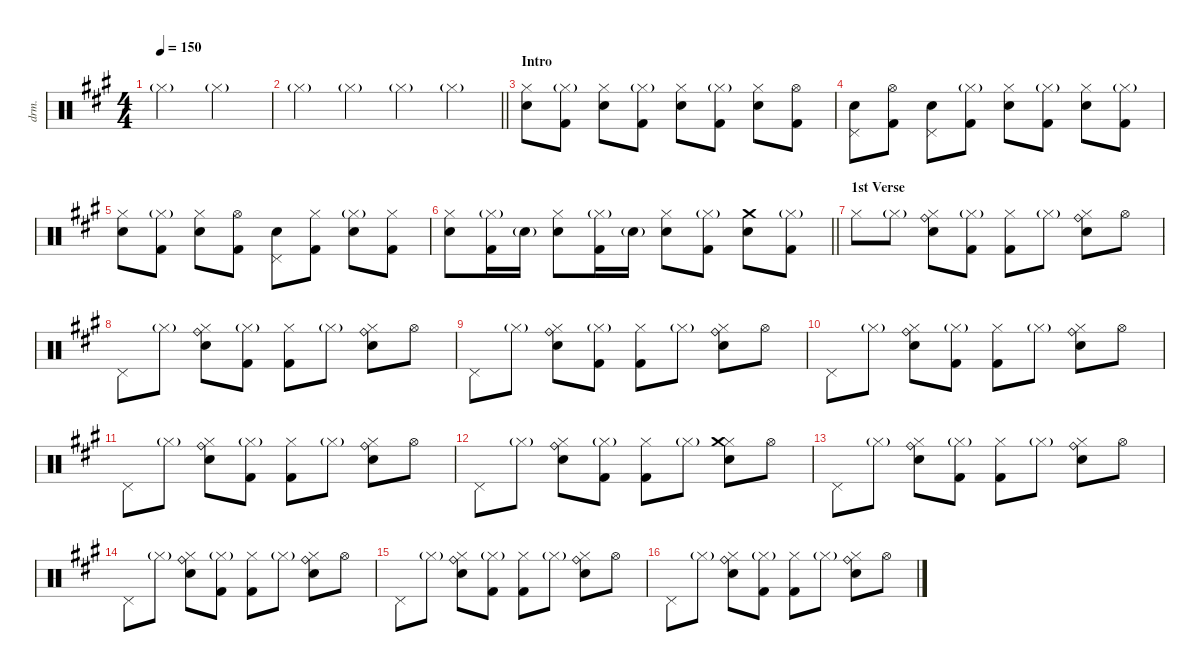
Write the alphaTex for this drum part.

\defaultSystemsLayout 4
\hideDynamics
\bracketExtendMode nobrackets
\otherSystemsTrackNameOrientation horizontal
\track ("Drums" "drm.") {instrument percussion}
\staff {score}
\articulation defaults
\ts (4 4)
\beaming (8 2 2 2 2)
\tempo 150
\clef neutral
\ks a "Hi-Hat (closed)"{g acc forcenatural}.2{dy p} "Hi-Hat (closed)"{g acc forcenatural}.2
|
\barLineRight lightlight "Hi-Hat (closed)"{g acc forcenatural}.4 "Hi-Hat (closed)"{g acc forcenatural}.4 "Hi-Hat (closed)"{g acc forcenatural}.4 "Hi-Hat (closed)"{g acc forcenatural}.4
|
\section ("" "Intro")
("Snare (hit) 2"{acc forcenatural} "Hi-Hat (closed)"{acc forcenatural}).8{dy ppp} ("Kick (hit) 2"{acc forcenatural} "Hi-Hat (closed)"{g acc forcenatural}).8{dy fff} ("Snare (hit) 2"{acc forcenatural} "Hi-Hat (closed)"{acc forcenatural}).8{dy ff} ("Kick (hit) 2"{acc forcenatural} "Hi-Hat (closed)"{g acc forcenatural}).8{dy fff} ("Snare (hit) 2"{acc forcenatural} "Hi-Hat (closed)"{acc forcenatural}).8{dy ff} ("Kick (hit) 2"{acc forcenatural} "Hi-Hat (closed)"{g acc forcenatural}).8{dy fff} ("Snare (hit) 2"{acc forcenatural} "Hi-Hat (closed)"{acc forcenatural}).8{dy ff} ("Kick (hit) 2"{acc forcenatural} "Hi-Hat (open)"{acc forcenatural}).8{dy fff} |
("Snare (hit) 2"{acc forcenatural} "Pedal Hi-Hat (hit)"{acc forcenatural}).8{dy ff} ("Kick (hit) 2"{acc forcenatural} "Hi-Hat (open)"{acc forcenatural}).8{dy fff} ("Snare (hit) 2"{acc forcenatural} "Pedal Hi-Hat (hit)"{acc forcenatural}).8{dy ff} ("Kick (hit) 2"{acc forcenatural} "Hi-Hat (closed)"{g acc forcenatural}).8{dy fff} ("Snare (hit) 2"{acc forcenatural} "Hi-Hat (closed)"{acc forcenatural}).8{dy ff} ("Kick (hit) 2"{acc forcenatural} "Hi-Hat (closed)"{g acc forcenatural}).8{dy fff} ("Snare (hit) 2"{acc forcenatural} "Hi-Hat (closed)"{acc forcenatural}).8{dy ff} ("Kick (hit) 2"{acc forcenatural} "Hi-Hat (closed)"{g acc forcenatural}).8{dy fff} |
("Snare (hit) 2"{acc forcenatural} "Hi-Hat (closed)"{acc forcenatural}).8{dy ff} ("Kick (hit) 2"{acc forcenatural} "Hi-Hat (closed)"{g acc forcenatural}).8{dy fff} ("Snare (hit) 2"{acc forcenatural} "Hi-Hat (closed)"{acc forcenatural}).8{dy ff} ("Kick (hit) 2"{acc forcenatural} "Hi-Hat (open)"{acc forcenatural}).8{dy fff} ("Snare (hit) 2"{acc forcenatural} "Pedal Hi-Hat (hit)"{acc forcenatural}).8{dy ff} ("Kick (hit) 2"{acc forcenatural} "Hi-Hat (closed)"{acc forcenatural}).8{dy fff} ("Snare (hit) 2"{acc forcenatural} "Hi-Hat (closed)"{g acc forcenatural}).8{dy ff} ("Kick (hit) 2"{acc forcenatural} "Hi-Hat (closed)"{acc forcenatural}).8{dy fff} |
\barLineRight lightlight
("Snare (hit) 2"{acc forcenatural} "Hi-Hat (closed)"{acc forcenatural}).8{dy ff} ("Kick (hit) 2"{acc forcenatural} "Hi-Hat (closed)"{g acc forcenatural}).16{dy fff} "Snare (hit) 2"{g acc forcenatural}.16{dy f} ("Snare (hit) 2"{acc forcenatural} "Hi-Hat (closed)"{acc forcenatural}).8{dy ff} ("Kick (hit) 2"{acc forcenatural} "Hi-Hat (closed)"{g acc forcenatural}).16{dy fff} "Snare (hit) 2"{g acc forcenatural}.16{dy f} ("Snare (hit) 2"{acc forcenatural} "Hi-Hat (closed)"{acc forcenatural}).8{dy ff} ("Kick (hit) 2"{acc forcenatural} "Hi-Hat (closed)"{g acc forcenatural}).8{dy fff} ("Snare (hit) 2"{acc forcenatural} "Crash medium (hit)"{acc forcenatural}).8{dy ff} ("Kick (hit) 2"{acc forcenatural} "Hi-Hat (closed)"{g acc forcenatural}).8{dy fff} |
\section ("" "1st Verse")
"Hi-Hat (closed)"{acc forcenatural}.8{dy f} "Hi-Hat (closed)"{g acc forcenatural}.8{dy p} ("Snare (hit) 2"{acc forcenatural} "Hi-Hat (closed)"{acc forcenatural} "Ride (bell)"{acc forcenatural}).8{dy ff} ("Kick (hit) 2"{acc forcenatural} "Hi-Hat (closed)"{g acc forcenatural}).8{dy mp} ("Kick (hit) 2"{acc forcenatural} "Hi-Hat (closed)"{acc forcenatural}).8{dy fff} "Hi-Hat (closed)"{g acc forcenatural}.8{dy p} ("Snare (hit) 2"{acc forcenatural} "Hi-Hat (closed)"{acc forcenatural} "Ride (bell)"{acc forcenatural}).8{dy ff} "Hi-Hat (open)"{acc forcenatural}.8{dy mp} |
"Pedal Hi-Hat (hit)"{acc forcenatural}.8{dy f} "Hi-Hat (closed)"{g acc forcenatural}.8{dy p} ("Snare (hit) 2"{acc forcenatural} "Hi-Hat (closed)"{acc forcenatural} "Ride (bell)"{acc forcenatural}).8{dy ff} ("Kick (hit) 2"{acc forcenatural} "Hi-Hat (closed)"{g acc forcenatural}).8{dy mp} ("Kick (hit) 2"{acc forcenatural} "Hi-Hat (closed)"{acc forcenatural}).8{dy fff} "Hi-Hat (closed)"{g acc forcenatural}.8{dy p} ("Snare (hit) 2"{acc forcenatural} "Hi-Hat (closed)"{acc forcenatural} "Ride (bell)"{acc forcenatural}).8{dy ff} "Hi-Hat (open)"{acc forcenatural}.8{dy mp} |
"Pedal Hi-Hat (hit)"{acc forcenatural}.8{dy f} "Hi-Hat (closed)"{g acc forcenatural}.8{dy p} ("Snare (hit) 2"{acc forcenatural} "Hi-Hat (closed)"{acc forcenatural} "Ride (bell)"{acc forcenatural}).8{dy ff} ("Kick (hit) 2"{acc forcenatural} "Hi-Hat (closed)"{g acc forcenatural}).8{dy mp} ("Kick (hit) 2"{acc forcenatural} "Hi-Hat (closed)"{acc forcenatural}).8{dy fff} "Hi-Hat (closed)"{g acc forcenatural}.8{dy p} ("Snare (hit) 2"{acc forcenatural} "Hi-Hat (closed)"{acc forcenatural} "Ride (bell)"{acc forcenatural}).8{dy ff} "Hi-Hat (open)"{acc forcenatural}.8{dy mp} |
"Pedal Hi-Hat (hit)"{acc forcenatural}.8{dy f} "Hi-Hat (closed)"{g acc forcenatural}.8{dy p} ("Snare (hit) 2"{acc forcenatural} "Hi-Hat (closed)"{acc forcenatural} "Ride (bell)"{acc forcenatural}).8{dy ff} ("Kick (hit) 2"{acc forcenatural} "Hi-Hat (closed)"{g acc forcenatural}).8{dy mp} ("Kick (hit) 2"{acc forcenatural} "Hi-Hat (closed)"{acc forcenatural}).8{dy fff} "Hi-Hat (closed)"{g acc forcenatural}.8{dy p} ("Snare (hit) 2"{acc forcenatural} "Hi-Hat (closed)"{acc forcenatural} "Ride (bell)"{acc forcenatural}).8{dy ff} "Hi-Hat (open)"{acc forcenatural}.8{dy mp} |
"Pedal Hi-Hat (hit)"{acc forcenatural}.8{dy f} "Hi-Hat (closed)"{g acc forcenatural}.8{dy p} ("Snare (hit) 2"{acc forcenatural} "Hi-Hat (closed)"{acc forcenatural} "Ride (bell)"{acc forcenatural}).8{dy ff} ("Kick (hit) 2"{acc forcenatural} "Hi-Hat (closed)"{g acc forcenatural}).8{dy mp} ("Kick (hit) 2"{acc forcenatural} "Hi-Hat (closed)"{acc forcenatural}).8{dy fff} "Hi-Hat (closed)"{g acc forcenatural}.8{dy p} ("Snare (hit) 2"{acc forcenatural} "Hi-Hat (closed)"{acc forcenatural} "Ride (bell)"{acc forcenatural}).8{dy ff} "Hi-Hat (open)"{acc forcenatural}.8{dy mp} |
"Pedal Hi-Hat (hit)"{acc forcenatural}.8{dy f} "Hi-Hat (closed)"{g acc forcenatural}.8{dy p} ("Snare (hit) 2"{acc forcenatural} "Hi-Hat (closed)"{acc forcenatural} "Ride (bell)"{acc forcenatural}).8{dy ff} ("Kick (hit) 2"{acc forcenatural} "Hi-Hat (closed)"{g acc forcenatural}).8{dy mp} ("Kick (hit) 2"{acc forcenatural} "Hi-Hat (closed)"{acc forcenatural}).8{dy fff} "Hi-Hat (closed)"{g acc forcenatural}.8{dy p} ("Snare (hit) 2"{acc forcenatural} "Hi-Hat (closed)"{acc forcenatural} "Crash medium (hit)"{acc forcenatural}).8{dy ff} "Hi-Hat (open)"{acc forcenatural}.8{dy mp} |
"Pedal Hi-Hat (hit)"{acc forcenatural}.8{dy f} "Hi-Hat (closed)"{g acc forcenatural}.8{dy p} ("Snare (hit) 2"{acc forcenatural} "Hi-Hat (closed)"{acc forcenatural} "Ride (bell)"{acc forcenatural}).8{dy ff} ("Kick (hit) 2"{acc forcenatural} "Hi-Hat (closed)"{g acc forcenatural}).8{dy mp} ("Kick (hit) 2"{acc forcenatural} "Hi-Hat (closed)"{acc forcenatural}).8{dy fff} "Hi-Hat (closed)"{g acc forcenatural}.8{dy p} ("Snare (hit) 2"{acc forcenatural} "Hi-Hat (closed)"{acc forcenatural} "Ride (bell)"{acc forcenatural}).8{dy ff} "Hi-Hat (open)"{acc forcenatural}.8{dy mp} |
"Pedal Hi-Hat (hit)"{acc forcenatural}.8{dy f} "Hi-Hat (closed)"{g acc forcenatural}.8{dy p} ("Snare (hit) 2"{acc forcenatural} "Hi-Hat (closed)"{acc forcenatural} "Ride (bell)"{acc forcenatural}).8{dy ff} ("Kick (hit) 2"{acc forcenatural} "Hi-Hat (closed)"{g acc forcenatural}).8{dy mp} ("Kick (hit) 2"{acc forcenatural} "Hi-Hat (closed)"{acc forcenatural}).8{dy fff} "Hi-Hat (closed)"{g acc forcenatural}.8{dy p} ("Snare (hit) 2"{acc forcenatural} "Hi-Hat (closed)"{acc forcenatural} "Ride (bell)"{acc forcenatural}).8{dy ff} "Hi-Hat (open)"{acc forcenatural}.8{dy mp} |
"Pedal Hi-Hat (hit)"{acc forcenatural}.8{dy f} "Hi-Hat (closed)"{g acc forcenatural}.8{dy p} ("Snare (hit) 2"{acc forcenatural} "Hi-Hat (closed)"{acc forcenatural} "Ride (bell)"{acc forcenatural}).8{dy ff} ("Kick (hit) 2"{acc forcenatural} "Hi-Hat (closed)"{g acc forcenatural}).8{dy mp} ("Kick (hit) 2"{acc forcenatural} "Hi-Hat (closed)"{acc forcenatural}).8{dy fff} "Hi-Hat (closed)"{g acc forcenatural}.8{dy p} ("Snare (hit) 2"{acc forcenatural} "Hi-Hat (closed)"{acc forcenatural} "Ride (bell)"{acc forcenatural}).8{dy ff} "Hi-Hat (open)"{acc forcenatural}.8{dy mp} |
"Pedal Hi-Hat (hit)"{acc forcenatural}.8{dy f} "Hi-Hat (closed)"{g acc forcenatural}.8{dy p} ("Snare (hit) 2"{acc forcenatural} "Hi-Hat (closed)"{acc forcenatural} "Ride (bell)"{acc forcenatural}).8{dy ff} ("Kick (hit) 2"{acc forcenatural} "Hi-Hat (closed)"{g acc forcenatural}).8{dy mp} ("Kick (hit) 2"{acc forcenatural} "Hi-Hat (closed)"{acc forcenatural}).8{dy fff} "Hi-Hat (closed)"{g acc forcenatural}.8{dy p} ("Snare (hit) 2"{acc forcenatural} "Hi-Hat (closed)"{acc forcenatural} "Ride (bell)"{acc forcenatural}).8{dy ff} "Hi-Hat (open)"{acc forcenatural}.8{dy mp}
